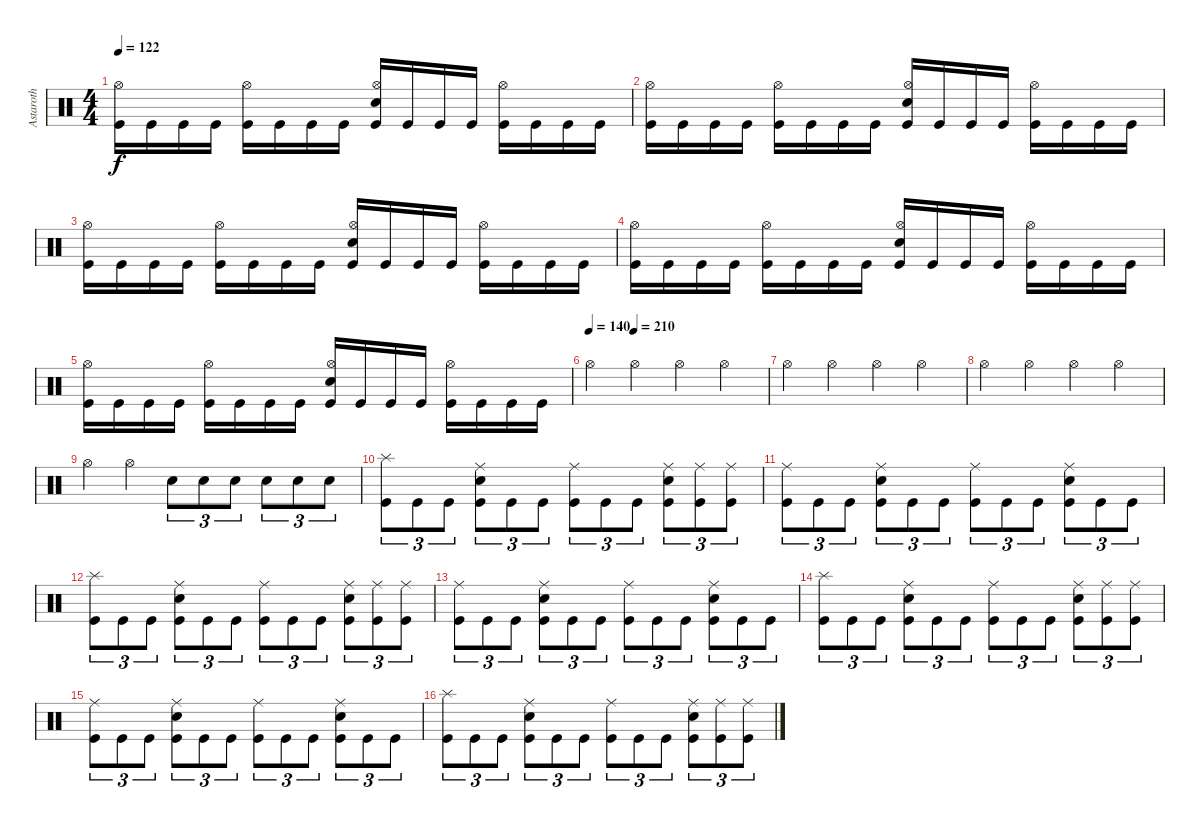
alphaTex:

\track ("Astaroth" "Astaroth") {instrument percussion}
\staff {score}
\articulation defaults
\ts (4 4)
\tempo 122
\clef neutral
\ks c
("Kick (hit)" "Hi-Hat (open)").16{dy f} "Kick (hit)".16 "Kick (hit)".16 "Kick (hit)".16 ("Kick (hit)" "Hi-Hat (open)").16 "Kick (hit)".16 "Kick (hit)".16 "Kick (hit)".16 ("Kick (hit)" "Hi-Hat (open)" "Electric Snare (hit)").16 "Kick (hit)".16 "Kick (hit)".16 "Kick (hit)".16 ("Kick (hit)" "Hi-Hat (open)").16 "Kick (hit)".16 "Kick (hit)".16 "Kick (hit)".16 |
("Kick (hit)" "Hi-Hat (open)").16 "Kick (hit)".16 "Kick (hit)".16 "Kick (hit)".16 ("Kick (hit)" "Hi-Hat (open)").16 "Kick (hit)".16 "Kick (hit)".16 "Kick (hit)".16 ("Kick (hit)" "Hi-Hat (open)" "Electric Snare (hit)").16 "Kick (hit)".16 "Kick (hit)".16 "Kick (hit)".16 ("Kick (hit)" "Hi-Hat (open)").16 "Kick (hit)".16 "Kick (hit)".16 "Kick (hit)".16 |
("Kick (hit)" "Hi-Hat (open)").16 "Kick (hit)".16 "Kick (hit)".16 "Kick (hit)".16 ("Kick (hit)" "Hi-Hat (open)").16 "Kick (hit)".16 "Kick (hit)".16 "Kick (hit)".16 ("Kick (hit)" "Hi-Hat (open)" "Electric Snare (hit)").16 "Kick (hit)".16 "Kick (hit)".16 "Kick (hit)".16 ("Kick (hit)" "Hi-Hat (open)").16 "Kick (hit)".16 "Kick (hit)".16 "Kick (hit)".16 |
("Kick (hit)" "Hi-Hat (open)").16 "Kick (hit)".16 "Kick (hit)".16 "Kick (hit)".16 ("Kick (hit)" "Hi-Hat (open)").16 "Kick (hit)".16 "Kick (hit)".16 "Kick (hit)".16 ("Kick (hit)" "Hi-Hat (open)" "Electric Snare (hit)").16 "Kick (hit)".16 "Kick (hit)".16 "Kick (hit)".16 ("Kick (hit)" "Hi-Hat (open)").16 "Kick (hit)".16 "Kick (hit)".16 "Kick (hit)".16 |
("Kick (hit)" "Hi-Hat (open)").16 "Kick (hit)".16 "Kick (hit)".16 "Kick (hit)".16 ("Kick (hit)" "Hi-Hat (open)").16 "Kick (hit)".16 "Kick (hit)".16 "Kick (hit)".16 ("Kick (hit)" "Hi-Hat (open)" "Electric Snare (hit)").16 "Kick (hit)".16 "Kick (hit)".16 "Kick (hit)".16 ("Kick (hit)" "Hi-Hat (open)").16 "Kick (hit)".16 "Kick (hit)".16 "Kick (hit)".16 |
\tempo 140
\tempo (210 0.25)
"Hi-Hat (open)".4 "Hi-Hat (open)".4 "Hi-Hat (open)".4 "Hi-Hat (open)".4 |
"Hi-Hat (open)".4 "Hi-Hat (open)".4 "Hi-Hat (open)".4 "Hi-Hat (open)".4 |
"Hi-Hat (open)".4 "Hi-Hat (open)".4 "Hi-Hat (open)".4 "Hi-Hat (open)".4 |
"Hi-Hat (open)".4 "Hi-Hat (open)".4 "Electric Snare (hit)".8{tu (3 2)} "Electric Snare (hit)".8{tu (3 2)} "Electric Snare (hit)".8{tu (3 2)} "Electric Snare (hit)".8{tu (3 2)} "Electric Snare (hit)".8{tu (3 2)} "Electric Snare (hit)".8{tu (3 2)} |
("Kick (hit)" "Splash (hit)").8{tu (3 2)} "Kick (hit)".8{tu (3 2)} "Kick (hit)".8{tu (3 2)} ("Kick (hit)" "Ride (middle)" "Electric Snare (hit)").8{tu (3 2)} "Kick (hit)".8{tu (3 2)} "Kick (hit)".8{tu (3 2)} ("Kick (hit)" "Ride (middle)").8{tu (3 2)} "Kick (hit)".8{tu (3 2)} "Kick (hit)".8{tu (3 2)} ("Kick (hit)" "Ride (middle)" "Electric Snare (hit)").8{tu (3 2)} ("Kick (hit)" "Ride (middle)").8{tu (3 2)} ("Kick (hit)" "Ride (middle)").8{tu (3 2)} |
("Kick (hit)" "Ride (middle)").8{tu (3 2)} "Kick (hit)".8{tu (3 2)} "Kick (hit)".8{tu (3 2)} ("Kick (hit)" "Ride (middle)" "Electric Snare (hit)").8{tu (3 2)} "Kick (hit)".8{tu (3 2)} "Kick (hit)".8{tu (3 2)} ("Kick (hit)" "Ride (middle)").8{tu (3 2)} "Kick (hit)".8{tu (3 2)} "Kick (hit)".8{tu (3 2)} ("Kick (hit)" "Ride (middle)" "Electric Snare (hit)").8{tu (3 2)} "Kick (hit)".8{tu (3 2)} "Kick (hit)".8{tu (3 2)} |
("Kick (hit)" "Splash (hit)").8{tu (3 2)} "Kick (hit)".8{tu (3 2)} "Kick (hit)".8{tu (3 2)} ("Kick (hit)" "Ride (middle)" "Electric Snare (hit)").8{tu (3 2)} "Kick (hit)".8{tu (3 2)} "Kick (hit)".8{tu (3 2)} ("Kick (hit)" "Ride (middle)").8{tu (3 2)} "Kick (hit)".8{tu (3 2)} "Kick (hit)".8{tu (3 2)} ("Kick (hit)" "Ride (middle)" "Electric Snare (hit)").8{tu (3 2)} ("Kick (hit)" "Ride (middle)").8{tu (3 2)} ("Kick (hit)" "Ride (middle)").8{tu (3 2)} |
("Kick (hit)" "Ride (middle)").8{tu (3 2)} "Kick (hit)".8{tu (3 2)} "Kick (hit)".8{tu (3 2)} ("Kick (hit)" "Ride (middle)" "Electric Snare (hit)").8{tu (3 2)} "Kick (hit)".8{tu (3 2)} "Kick (hit)".8{tu (3 2)} ("Kick (hit)" "Ride (middle)").8{tu (3 2)} "Kick (hit)".8{tu (3 2)} "Kick (hit)".8{tu (3 2)} ("Kick (hit)" "Ride (middle)" "Electric Snare (hit)").8{tu (3 2)} "Kick (hit)".8{tu (3 2)} "Kick (hit)".8{tu (3 2)} |
("Kick (hit)" "Splash (hit)").8{tu (3 2)} "Kick (hit)".8{tu (3 2)} "Kick (hit)".8{tu (3 2)} ("Kick (hit)" "Ride (middle)" "Electric Snare (hit)").8{tu (3 2)} "Kick (hit)".8{tu (3 2)} "Kick (hit)".8{tu (3 2)} ("Kick (hit)" "Ride (middle)").8{tu (3 2)} "Kick (hit)".8{tu (3 2)} "Kick (hit)".8{tu (3 2)} ("Kick (hit)" "Ride (middle)" "Electric Snare (hit)").8{tu (3 2)} ("Kick (hit)" "Ride (middle)").8{tu (3 2)} ("Kick (hit)" "Ride (middle)").8{tu (3 2)} |
("Kick (hit)" "Ride (middle)").8{tu (3 2)} "Kick (hit)".8{tu (3 2)} "Kick (hit)".8{tu (3 2)} ("Kick (hit)" "Ride (middle)" "Electric Snare (hit)").8{tu (3 2)} "Kick (hit)".8{tu (3 2)} "Kick (hit)".8{tu (3 2)} ("Kick (hit)" "Ride (middle)").8{tu (3 2)} "Kick (hit)".8{tu (3 2)} "Kick (hit)".8{tu (3 2)} ("Kick (hit)" "Ride (middle)" "Electric Snare (hit)").8{tu (3 2)} "Kick (hit)".8{tu (3 2)} "Kick (hit)".8{tu (3 2)} |
("Kick (hit)" "Splash (hit)").8{tu (3 2)} "Kick (hit)".8{tu (3 2)} "Kick (hit)".8{tu (3 2)} ("Kick (hit)" "Ride (middle)" "Electric Snare (hit)").8{tu (3 2)} "Kick (hit)".8{tu (3 2)} "Kick (hit)".8{tu (3 2)} ("Kick (hit)" "Ride (middle)").8{tu (3 2)} "Kick (hit)".8{tu (3 2)} "Kick (hit)".8{tu (3 2)} ("Kick (hit)" "Ride (middle)" "Electric Snare (hit)").8{tu (3 2)} ("Kick (hit)" "Ride (middle)").8{tu (3 2)} ("Kick (hit)" "Ride (middle)").8{tu (3 2)}
